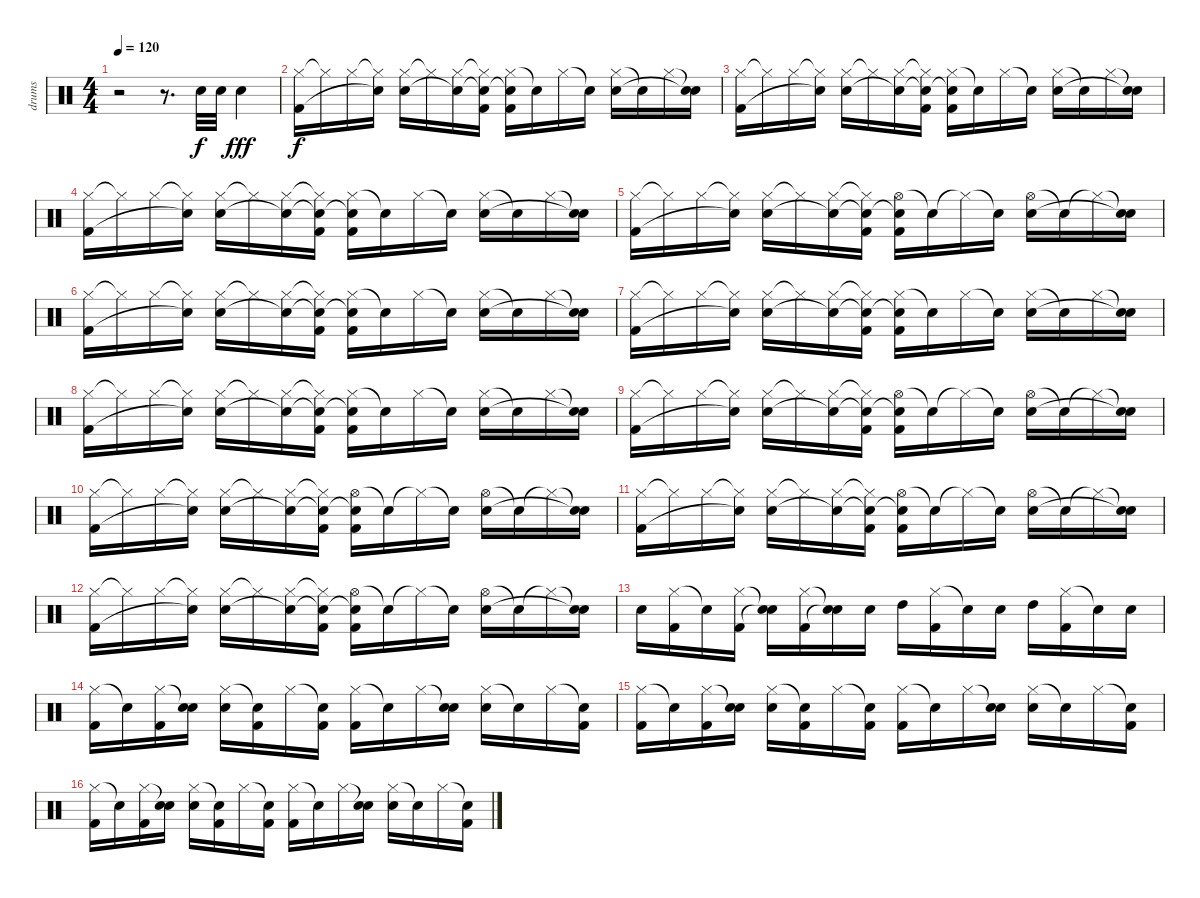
\track ("drums" "drums") {instrument percussion}
\staff {score}
\articulation defaults
\ts (4 4)
\tempo 120
\clef neutral
\ks c
r.2{dy f} r.8{d} "Snare (hit) 2".32 "Snare (hit) 2".32 "Snare (hit) 2".4{dy fff} |
("Hi-Hat (closed)" "Kick (hit) 2").16{dy f} "Hi-Hat (closed)"{t}.16 "Hi-Hat (closed)".16 ("Hi-Hat (closed)"{t} "Snare (hit)"{t}).16 ("Hi-Hat (closed)" "Snare (hit) 2").16 "Hi-Hat (closed)"{t}.16 ("Hi-Hat (closed)" "Snare (hit)"{t}).16 ("Hi-Hat (closed)"{t} "Snare (hit)"{t} "Kick (hit) 2").16 ("Hi-Hat (closed)" "Snare (hit)"{t} "Kick (hit) 2").16 "Snare (hit)"{t}.16 "Hi-Hat (closed)".16 "Snare (hit)"{t}.16 ("Hi-Hat (closed)" "Snare (hit) 2").16 "Snare (hit)"{t}.16 "Hi-Hat (closed)".16 ("Snare (hit)"{t} "Snare (hit)"{t}).16 |
("Hi-Hat (closed)" "Kick (hit) 2").16 "Hi-Hat (closed)"{t}.16 "Hi-Hat (closed)".16 ("Hi-Hat (closed)"{t} "Snare (hit)"{t}).16 ("Hi-Hat (closed)" "Snare (hit) 2").16 "Hi-Hat (closed)"{t}.16 ("Hi-Hat (closed)" "Snare (hit)"{t}).16 ("Hi-Hat (closed)"{t} "Snare (hit)"{t} "Kick (hit) 2").16 ("Hi-Hat (closed)" "Snare (hit)"{t} "Kick (hit) 2").16 "Snare (hit)"{t}.16 "Hi-Hat (closed)".16 "Snare (hit)"{t}.16 ("Hi-Hat (closed)" "Snare (hit) 2").16 "Snare (hit)"{t}.16 "Hi-Hat (closed)".16 ("Snare (hit)"{t} "Snare (hit)"{t}).16 |
("Hi-Hat (closed)" "Kick (hit) 2").16 "Hi-Hat (closed)"{t}.16 "Hi-Hat (closed)".16 ("Hi-Hat (closed)"{t} "Snare (hit)"{t}).16 ("Hi-Hat (closed)" "Snare (hit) 2").16 "Hi-Hat (closed)"{t}.16 ("Hi-Hat (closed)" "Snare (hit)"{t}).16 ("Hi-Hat (closed)"{t} "Snare (hit)"{t} "Kick (hit) 2").16 ("Hi-Hat (closed)" "Snare (hit)"{t} "Kick (hit) 2").16 "Snare (hit)"{t}.16 "Hi-Hat (closed)".16 "Snare (hit)"{t}.16 ("Hi-Hat (closed)" "Snare (hit) 2").16 "Snare (hit)"{t}.16 "Hi-Hat (closed)".16 ("Snare (hit)"{t} "Snare (hit)"{t}).16 |
("Hi-Hat (closed)" "Kick (hit) 2").16 "Hi-Hat (closed)"{t}.16 "Hi-Hat (closed)".16 ("Hi-Hat (closed)"{t} "Snare (hit)"{t}).16 ("Hi-Hat (closed)" "Snare (hit) 2").16 "Hi-Hat (closed)"{t}.16 ("Hi-Hat (closed)" "Snare (hit)"{t}).16 ("Hi-Hat (closed)"{t} "Snare (hit)"{t} "Kick (hit) 2").16 ("Hi-Hat (open)" "Snare (hit)"{t} "Kick (hit) 2").16 "Snare (hit)"{t}.16 "Hi-Hat (closed)"{t}.16 "Snare (hit)"{t}.16 ("Hi-Hat (open)" "Snare (hit) 2").16 "Snare (hit)"{t}.16 "Hi-Hat (closed)"{t}.16 ("Snare (hit)"{t} "Snare (hit)"{t}).16 |
("Hi-Hat (closed)" "Kick (hit) 2").16 "Hi-Hat (closed)"{t}.16 "Hi-Hat (closed)".16 ("Hi-Hat (closed)"{t} "Snare (hit)"{t}).16 ("Hi-Hat (closed)" "Snare (hit) 2").16 "Hi-Hat (closed)"{t}.16 ("Hi-Hat (closed)" "Snare (hit)"{t}).16 ("Hi-Hat (closed)"{t} "Snare (hit)"{t} "Kick (hit) 2").16 ("Hi-Hat (closed)" "Snare (hit)"{t} "Kick (hit) 2").16 "Snare (hit)"{t}.16 "Hi-Hat (closed)".16 "Snare (hit)"{t}.16 ("Hi-Hat (closed)" "Snare (hit) 2").16 "Snare (hit)"{t}.16 "Hi-Hat (closed)".16 ("Snare (hit)"{t} "Snare (hit)"{t}).16 |
("Hi-Hat (closed)" "Kick (hit) 2").16 "Hi-Hat (closed)"{t}.16 "Hi-Hat (closed)".16 ("Hi-Hat (closed)"{t} "Snare (hit)"{t}).16 ("Hi-Hat (closed)" "Snare (hit) 2").16 "Hi-Hat (closed)"{t}.16 ("Hi-Hat (closed)" "Snare (hit)"{t}).16 ("Hi-Hat (closed)"{t} "Snare (hit)"{t} "Kick (hit) 2").16 ("Hi-Hat (closed)" "Snare (hit)"{t} "Kick (hit) 2").16 "Snare (hit)"{t}.16 "Hi-Hat (closed)".16 "Snare (hit)"{t}.16 ("Hi-Hat (closed)" "Snare (hit) 2").16 "Snare (hit)"{t}.16 "Hi-Hat (closed)".16 ("Snare (hit)"{t} "Snare (hit)"{t}).16 |
("Hi-Hat (closed)" "Kick (hit) 2").16 "Hi-Hat (closed)"{t}.16 "Hi-Hat (closed)".16 ("Hi-Hat (closed)"{t} "Snare (hit)"{t}).16 ("Hi-Hat (closed)" "Snare (hit) 2").16 "Hi-Hat (closed)"{t}.16 ("Hi-Hat (closed)" "Snare (hit)"{t}).16 ("Hi-Hat (closed)"{t} "Snare (hit)"{t} "Kick (hit) 2").16 ("Hi-Hat (closed)" "Snare (hit)"{t} "Kick (hit) 2").16 "Snare (hit)"{t}.16 "Hi-Hat (closed)".16 "Snare (hit)"{t}.16 ("Hi-Hat (closed)" "Snare (hit) 2").16 "Snare (hit)"{t}.16 "Hi-Hat (closed)".16 ("Snare (hit)"{t} "Snare (hit)"{t}).16 |
("Hi-Hat (closed)" "Kick (hit) 2").16 "Hi-Hat (closed)"{t}.16 "Hi-Hat (closed)".16 ("Hi-Hat (closed)"{t} "Snare (hit)"{t}).16 ("Hi-Hat (closed)" "Snare (hit) 2").16 "Hi-Hat (closed)"{t}.16 ("Hi-Hat (closed)" "Snare (hit)"{t}).16 ("Hi-Hat (closed)"{t} "Snare (hit)"{t} "Kick (hit) 2").16 ("Hi-Hat (open)" "Snare (hit)"{t} "Kick (hit) 2").16 "Snare (hit)"{t}.16 "Hi-Hat (closed)"{t}.16 "Snare (hit)"{t}.16 ("Hi-Hat (open)" "Snare (hit) 2").16 "Snare (hit)"{t}.16 "Hi-Hat (closed)"{t}.16 ("Snare (hit)"{t} "Snare (hit)"{t}).16 |
("Hi-Hat (closed)" "Kick (hit) 2").16 "Hi-Hat (closed)"{t}.16 "Hi-Hat (closed)".16 ("Hi-Hat (closed)"{t} "Snare (hit)"{t}).16 ("Hi-Hat (closed)" "Snare (hit) 2").16 "Hi-Hat (closed)"{t}.16 ("Hi-Hat (closed)" "Snare (hit)"{t}).16 ("Hi-Hat (closed)"{t} "Snare (hit)"{t} "Kick (hit) 2").16 ("Hi-Hat (open)" "Snare (hit)"{t} "Kick (hit) 2").16 "Snare (hit)"{t}.16 "Hi-Hat (closed)"{t}.16 "Snare (hit)"{t}.16 ("Hi-Hat (open)" "Snare (hit) 2").16 "Snare (hit)"{t}.16 "Hi-Hat (closed)"{t}.16 ("Snare (hit)"{t} "Snare (hit)"{t}).16 |
("Hi-Hat (closed)" "Kick (hit) 2").16 "Hi-Hat (closed)"{t}.16 "Hi-Hat (closed)".16 ("Hi-Hat (closed)"{t} "Snare (hit)"{t}).16 ("Hi-Hat (closed)" "Snare (hit) 2").16 "Hi-Hat (closed)"{t}.16 ("Hi-Hat (closed)" "Snare (hit)"{t}).16 ("Hi-Hat (closed)"{t} "Snare (hit)"{t} "Kick (hit) 2").16 ("Hi-Hat (open)" "Snare (hit)"{t} "Kick (hit) 2").16 "Snare (hit)"{t}.16 "Hi-Hat (closed)"{t}.16 "Snare (hit)"{t}.16 ("Hi-Hat (open)" "Snare (hit) 2").16 "Snare (hit)"{t}.16 "Hi-Hat (closed)"{t}.16 ("Snare (hit)"{t} "Snare (hit)"{t}).16 |
("Hi-Hat (closed)" "Kick (hit) 2").16 "Hi-Hat (closed)"{t}.16 "Hi-Hat (closed)".16 ("Hi-Hat (closed)"{t} "Snare (hit)"{t}).16 ("Hi-Hat (closed)" "Snare (hit) 2").16 "Hi-Hat (closed)"{t}.16 ("Hi-Hat (closed)" "Snare (hit)"{t}).16 ("Hi-Hat (closed)"{t} "Snare (hit)"{t} "Kick (hit) 2").16 ("Hi-Hat (open)" "Snare (hit)"{t} "Kick (hit) 2").16 "Snare (hit)"{t}.16 "Hi-Hat (closed)"{t}.16 "Snare (hit)"{t}.16 ("Hi-Hat (open)" "Snare (hit) 2").16 "Snare (hit)"{t}.16 "Hi-Hat (closed)"{t}.16 ("Snare (hit)"{t} "Snare (hit)"{t}).16 |
"Snare (hit) 2".16 ("Hi-Hat (closed)" "Kick (hit) 2").16 "Snare (hit)"{t}.16 ("Hi-Hat (closed)" "Kick (hit) 2").16 ("Snare (hit)"{t} "Snare (hit)"{t}).16 ("Hi-Hat (closed)" "Kick (hit) 2").16 ("Snare (hit)"{t} "Snare (hit)"{t}).16 "Snare (hit) 2".16 "High Tom (hit)".16 ("Hi-Hat (closed)" "Kick (hit) 2").16 "Snare (hit)"{t}.16 "Snare (hit) 2".16 "High Tom (hit)".16 ("Hi-Hat (closed)" "Kick (hit) 2").16 "Snare (hit)"{t}.16 "Snare (hit) 2".16 |
("Hi-Hat (closed)" "Kick (hit) 2").16 "Snare (hit)"{t}.16 ("Hi-Hat (closed)" "Kick (hit) 2").16 ("Snare (hit)"{t} "Snare (hit) 2").16 ("Hi-Hat (closed)" "Snare (hit) 2").16 ("Snare (hit)"{t} "Kick (hit) 2").16 "Hi-Hat (closed)".16 ("Snare (hit)"{t} "Kick (hit) 2").16 ("Hi-Hat (closed)" "Kick (hit) 2").16 "Snare (hit)"{t}.16 "Hi-Hat (closed)".16 ("Snare (hit)"{t} "Snare (hit) 2").16 ("Hi-Hat (closed)" "Snare (hit) 2").16 "Snare (hit)"{t}.16 "Hi-Hat (closed)".16 ("Snare (hit)"{t} "Kick (hit) 2").16 |
("Hi-Hat (closed)" "Kick (hit) 2").16 "Snare (hit)"{t}.16 ("Hi-Hat (closed)" "Kick (hit) 2").16 ("Snare (hit)"{t} "Snare (hit) 2").16 ("Hi-Hat (closed)" "Snare (hit) 2").16 ("Snare (hit)"{t} "Kick (hit) 2").16 "Hi-Hat (closed)".16 ("Snare (hit)"{t} "Kick (hit) 2").16 ("Hi-Hat (closed)" "Kick (hit) 2").16 "Snare (hit)"{t}.16 "Hi-Hat (closed)".16 ("Snare (hit)"{t} "Snare (hit) 2").16 ("Hi-Hat (closed)" "Snare (hit) 2").16 "Snare (hit)"{t}.16 "Hi-Hat (closed)".16 ("Snare (hit)"{t} "Kick (hit) 2").16 |
("Hi-Hat (closed)" "Kick (hit) 2").16 "Snare (hit)"{t}.16 ("Hi-Hat (closed)" "Kick (hit) 2").16 ("Snare (hit)"{t} "Snare (hit) 2").16 ("Hi-Hat (closed)" "Snare (hit) 2").16 ("Snare (hit)"{t} "Kick (hit) 2").16 "Hi-Hat (closed)".16 ("Snare (hit)"{t} "Kick (hit) 2").16 ("Hi-Hat (closed)" "Kick (hit) 2").16 "Snare (hit)"{t}.16 "Hi-Hat (closed)".16 ("Snare (hit)"{t} "Snare (hit) 2").16 ("Hi-Hat (closed)" "Snare (hit) 2").16 "Snare (hit)"{t}.16 "Hi-Hat (closed)".16 ("Snare (hit)"{t} "Kick (hit) 2").16
